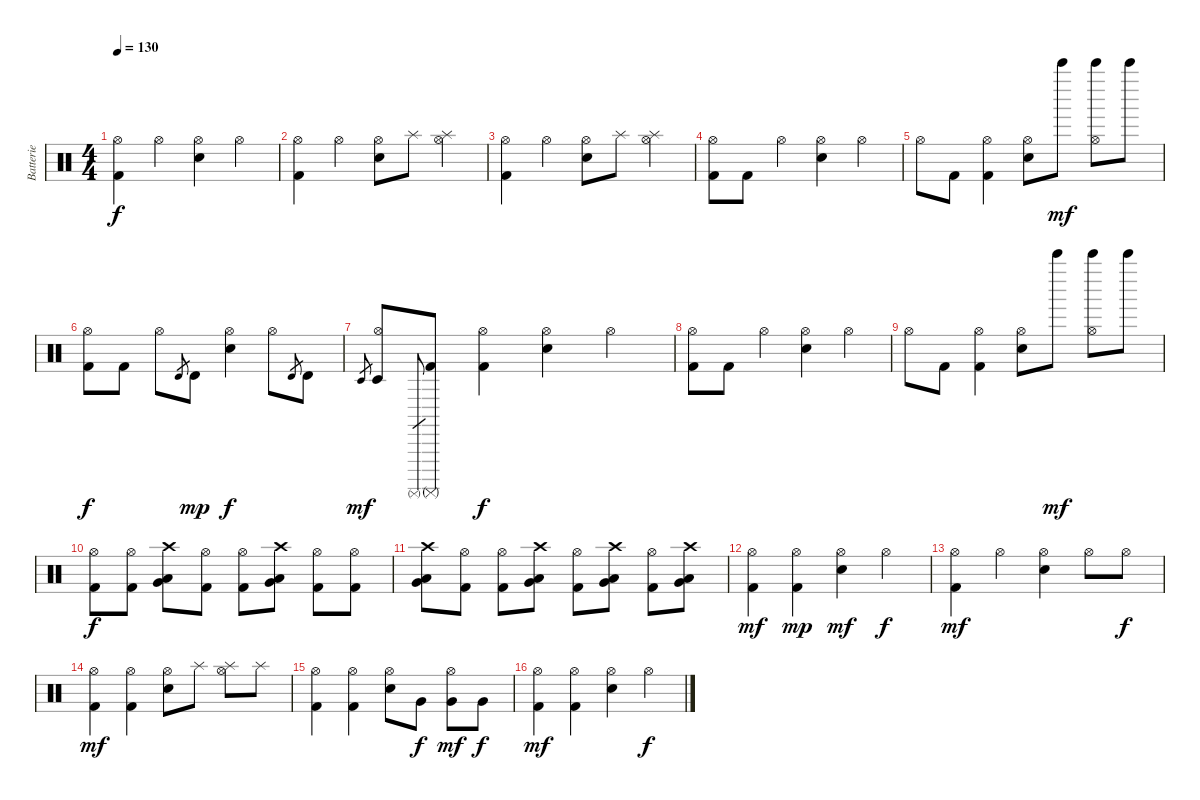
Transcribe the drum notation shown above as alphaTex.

\track ("Batterie" "Batterie") {instrument percussion}
\staff {score}
\articulation defaults
\ts (4 4)
\tempo 130
\clef neutral
\ks c
("Hi-Hat (open)" "Kick (hit) 2").4{dy f} "Hi-Hat (open)".4 ("Hi-Hat (open)" "Electric Snare (hit)").4 "Hi-Hat (open)".4 |
("Hi-Hat (open)" "Kick (hit) 2").4 "Hi-Hat (open)".4 ("Hi-Hat (open)" "Electric Snare (hit)").8 "Splash (hit)".8 ("Hi-Hat (open)" "Splash (hit)").4 |
("Hi-Hat (open)" "Kick (hit) 2").4 "Hi-Hat (open)".4 ("Hi-Hat (open)" "Electric Snare (hit)").8 "Splash (hit)".8 ("Hi-Hat (open)" "Splash (hit)").4 |
("Hi-Hat (open)" "Kick (hit) 2").8 "Kick (hit) 2".8 "Hi-Hat (open)".4 ("Hi-Hat (open)" "Electric Snare (hit)").4 "Hi-Hat (open)".4 |
"Hi-Hat (open)".8 "Kick (hit) 2".8 ("Hi-Hat (open)" "Kick (hit) 2").4 ("Hi-Hat (open)" "Electric Snare (hit)").8 "Bell Tree (hit)".8{dy mf} ("Hi-Hat (open)" "Bell Tree (hit)").8 "Bell Tree (hit)".8 |
("Hi-Hat (open)" "Kick (hit) 2").8{dy f} "Kick (hit) 2".8 "Hi-Hat (open)".8 "Timbale high (hit)".8{gr} "Timbale high (hit)".8{dy mp} ("Hi-Hat (open)" "Electric Snare (hit)").4{dy f} "Hi-Hat (open)".8 "Timbale high (hit)".8{gr} "Timbale high (hit)".8 |
"Timbale low (hit)".8{gr dy mf} ("Hi-Hat (open)" "Timbale low (hit)").8 "Surdo (mute)".8{gr} ("Surdo (mute)" "Kick (hit) 2").8 ("Hi-Hat (open)" "Kick (hit) 2").4{dy f} ("Hi-Hat (open)" "Electric Snare (hit)").4 "Hi-Hat (open)".4 |
("Hi-Hat (open)" "Kick (hit) 2").8 "Kick (hit) 2".8 "Hi-Hat (open)".4 ("Hi-Hat (open)" "Electric Snare (hit)").4 "Hi-Hat (open)".4 |
"Hi-Hat (open)".8 "Kick (hit) 2".8 ("Hi-Hat (open)" "Kick (hit) 2").4 ("Hi-Hat (open)" "Electric Snare (hit)").8 "Bell Tree (hit)".8{dy mf} ("Hi-Hat (open)" "Bell Tree (hit)").8 "Bell Tree (hit)".8 |
("Hi-Hat (open)" "Kick (hit) 2").8{dy f} ("Hi-Hat (open)" "Kick (hit) 2").8 ("Crash high (hit)" "Very Low Tom (hit)" "Low Tom (hit)").8 ("Hi-Hat (open)" "Kick (hit) 2").8 ("Hi-Hat (open)" "Kick (hit) 2").8 ("Crash high (hit)" "Very Low Tom (hit)" "Low Tom (hit)").8 ("Hi-Hat (open)" "Kick (hit) 2").8 ("Hi-Hat (open)" "Kick (hit) 2").8 |
("Crash high (hit)" "Very Low Tom (hit)" "Low Tom (hit)").8 ("Hi-Hat (open)" "Kick (hit) 2").8 ("Hi-Hat (open)" "Kick (hit) 2").8 ("Crash high (hit)" "Very Low Tom (hit)" "Low Tom (hit)").8 ("Hi-Hat (open)" "Kick (hit) 2").8 ("Crash high (hit)" "Very Low Tom (hit)" "Low Tom (hit)").8 ("Hi-Hat (open)" "Kick (hit) 2").8 ("Crash high (hit)" "Very Low Tom (hit)" "Low Tom (hit)").8 |
("Hi-Hat (open)" "Kick (hit) 2").4{dy mf} ("Hi-Hat (open)" "Kick (hit) 2").4{dy mp} ("Hi-Hat (open)" "Electric Snare (hit)").4{dy mf} "Hi-Hat (open)".4{dy f} |
("Hi-Hat (open)" "Kick (hit) 2").4{dy mf} "Hi-Hat (open)".4 ("Hi-Hat (open)" "Electric Snare (hit)").4 "Hi-Hat (open)".8 "Hi-Hat (open)".8{dy f} |
("Hi-Hat (open)" "Kick (hit) 2").4{dy mf} ("Hi-Hat (open)" "Kick (hit) 2").4 ("Hi-Hat (open)" "Electric Snare (hit)").8 "Splash (hit)".8 ("Hi-Hat (open)" "Splash (hit)").8 "Splash (hit)".8 |
("Hi-Hat (open)" "Kick (hit) 2").4 ("Hi-Hat (open)" "Kick (hit) 2").4 ("Hi-Hat (open)" "Electric Snare (hit)").8 "Very Low Tom (hit)".8{dy f} ("Hi-Hat (open)" "Very Low Tom (hit)").8{dy mf} "Very Low Tom (hit)".8{dy f} |
("Hi-Hat (open)" "Kick (hit) 2").4{dy mf} ("Hi-Hat (open)" "Kick (hit) 2").4 ("Hi-Hat (open)" "Electric Snare (hit)").4 "Hi-Hat (open)".4{dy f}
